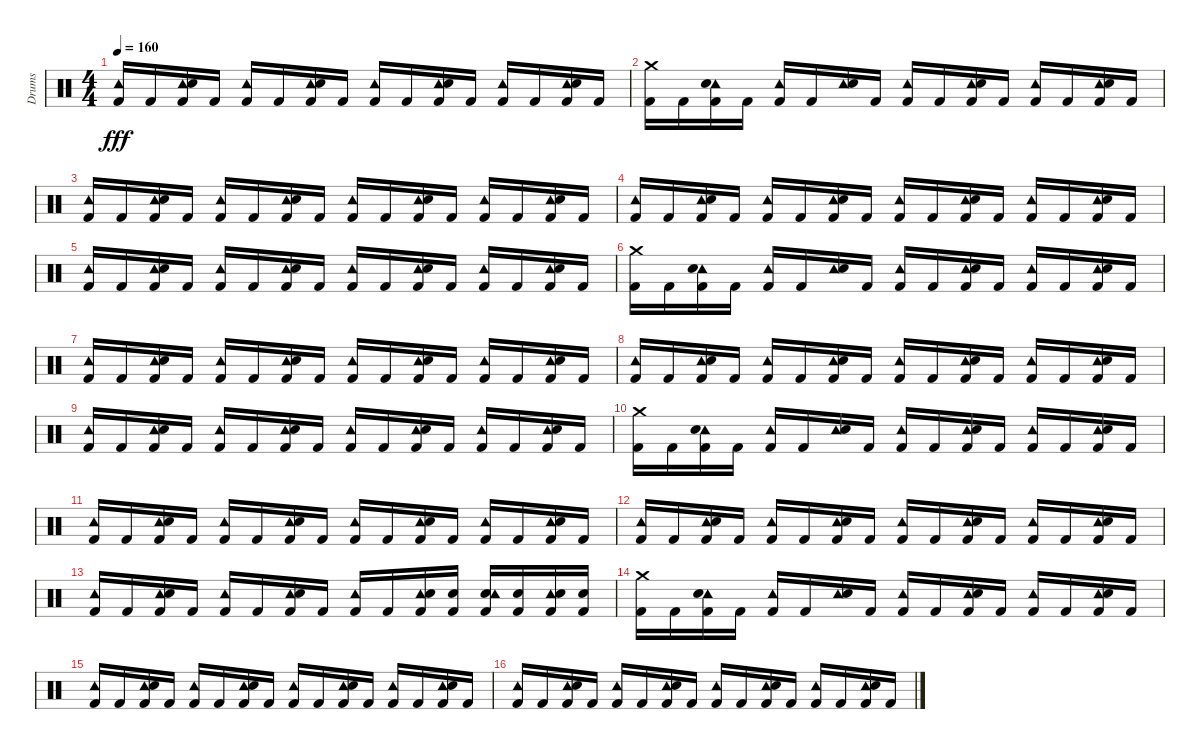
\track ("Drums" "Drums") {instrument percussion}
\staff {score}
\articulation defaults
\ts (4 4)
\tempo 160
\clef neutral
\ks c
("Kick (hit) 2" "Tambourine (hit)").16{dy fff} "Kick (hit) 2".16 ("Kick (hit) 2" "Tambourine (hit)" "Electric Snare (hit)").16 "Kick (hit) 2".16 ("Kick (hit) 2" "Tambourine (hit)").16 "Kick (hit) 2".16 ("Kick (hit) 2" "Tambourine (hit)" "Electric Snare (hit)").16 "Kick (hit) 2".16 ("Kick (hit) 2" "Tambourine (hit)").16 "Kick (hit) 2".16 ("Kick (hit) 2" "Tambourine (hit)" "Electric Snare (hit)").16 "Kick (hit) 2".16 ("Kick (hit) 2" "Tambourine (hit)").16 "Kick (hit) 2".16 ("Kick (hit) 2" "Tambourine (hit)" "Electric Snare (hit)").16 "Kick (hit) 2".16 |
("Crash medium (hit)" "Kick (hit) 2").16 "Kick (hit) 2".16 ("Kick (hit) 2" "Tambourine (hit)" "Electric Snare (hit)").16 "Kick (hit) 2".16 ("Kick (hit) 2" "Tambourine (hit)").16 "Kick (hit) 2".16 ("Tambourine (hit)" "Electric Snare (hit)").16 "Kick (hit) 2".16 ("Kick (hit) 2" "Tambourine (hit)").16 "Kick (hit) 2".16 ("Kick (hit) 2" "Tambourine (hit)" "Electric Snare (hit)").16 "Kick (hit) 2".16 ("Kick (hit) 2" "Tambourine (hit)").16 "Kick (hit) 2".16 ("Kick (hit) 2" "Tambourine (hit)" "Electric Snare (hit)").16 "Kick (hit) 2".16 |
("Kick (hit) 2" "Tambourine (hit)").16 "Kick (hit) 2".16 ("Kick (hit) 2" "Tambourine (hit)" "Electric Snare (hit)").16 "Kick (hit) 2".16 ("Kick (hit) 2" "Tambourine (hit)").16 "Kick (hit) 2".16 ("Kick (hit) 2" "Tambourine (hit)" "Electric Snare (hit)").16 "Kick (hit) 2".16 ("Kick (hit) 2" "Tambourine (hit)").16 "Kick (hit) 2".16 ("Kick (hit) 2" "Tambourine (hit)" "Electric Snare (hit)").16 "Kick (hit) 2".16 ("Kick (hit) 2" "Tambourine (hit)").16 "Kick (hit) 2".16 ("Kick (hit) 2" "Tambourine (hit)" "Electric Snare (hit)").16 "Kick (hit) 2".16 |
("Kick (hit) 2" "Tambourine (hit)").16 "Kick (hit) 2".16 ("Kick (hit) 2" "Tambourine (hit)" "Electric Snare (hit)").16 "Kick (hit) 2".16 ("Kick (hit) 2" "Tambourine (hit)").16 "Kick (hit) 2".16 ("Kick (hit) 2" "Tambourine (hit)" "Electric Snare (hit)").16 "Kick (hit) 2".16 ("Kick (hit) 2" "Tambourine (hit)").16 "Kick (hit) 2".16 ("Kick (hit) 2" "Tambourine (hit)" "Electric Snare (hit)").16 "Kick (hit) 2".16 ("Kick (hit) 2" "Tambourine (hit)").16 "Kick (hit) 2".16 ("Kick (hit) 2" "Tambourine (hit)" "Electric Snare (hit)").16 "Kick (hit) 2".16 |
("Kick (hit) 2" "Tambourine (hit)").16 "Kick (hit) 2".16 ("Kick (hit) 2" "Tambourine (hit)" "Electric Snare (hit)").16 "Kick (hit) 2".16 ("Kick (hit) 2" "Tambourine (hit)").16 "Kick (hit) 2".16 ("Kick (hit) 2" "Tambourine (hit)" "Electric Snare (hit)").16 "Kick (hit) 2".16 ("Kick (hit) 2" "Tambourine (hit)").16 "Kick (hit) 2".16 ("Kick (hit) 2" "Tambourine (hit)" "Electric Snare (hit)").16 "Kick (hit) 2".16 ("Kick (hit) 2" "Tambourine (hit)").16 "Kick (hit) 2".16 ("Kick (hit) 2" "Tambourine (hit)" "Electric Snare (hit)").16 "Kick (hit) 2".16 |
("Crash medium (hit)" "Kick (hit) 2").16 "Kick (hit) 2".16 ("Kick (hit) 2" "Tambourine (hit)" "Electric Snare (hit)").16 "Kick (hit) 2".16 ("Kick (hit) 2" "Tambourine (hit)").16 "Kick (hit) 2".16 ("Tambourine (hit)" "Electric Snare (hit)").16 "Kick (hit) 2".16 ("Kick (hit) 2" "Tambourine (hit)").16 "Kick (hit) 2".16 ("Kick (hit) 2" "Tambourine (hit)" "Electric Snare (hit)").16 "Kick (hit) 2".16 ("Kick (hit) 2" "Tambourine (hit)").16 "Kick (hit) 2".16 ("Kick (hit) 2" "Tambourine (hit)" "Electric Snare (hit)").16 "Kick (hit) 2".16 |
("Kick (hit) 2" "Tambourine (hit)").16 "Kick (hit) 2".16 ("Kick (hit) 2" "Tambourine (hit)" "Electric Snare (hit)").16 "Kick (hit) 2".16 ("Kick (hit) 2" "Tambourine (hit)").16 "Kick (hit) 2".16 ("Kick (hit) 2" "Tambourine (hit)" "Electric Snare (hit)").16 "Kick (hit) 2".16 ("Kick (hit) 2" "Tambourine (hit)").16 "Kick (hit) 2".16 ("Kick (hit) 2" "Tambourine (hit)" "Electric Snare (hit)").16 "Kick (hit) 2".16 ("Kick (hit) 2" "Tambourine (hit)").16 "Kick (hit) 2".16 ("Kick (hit) 2" "Tambourine (hit)" "Electric Snare (hit)").16 "Kick (hit) 2".16 |
("Kick (hit) 2" "Tambourine (hit)").16 "Kick (hit) 2".16 ("Kick (hit) 2" "Tambourine (hit)" "Electric Snare (hit)").16 "Kick (hit) 2".16 ("Kick (hit) 2" "Tambourine (hit)").16 "Kick (hit) 2".16 ("Kick (hit) 2" "Tambourine (hit)" "Electric Snare (hit)").16 "Kick (hit) 2".16 ("Kick (hit) 2" "Tambourine (hit)").16 "Kick (hit) 2".16 ("Kick (hit) 2" "Tambourine (hit)" "Electric Snare (hit)").16 "Kick (hit) 2".16 ("Kick (hit) 2" "Tambourine (hit)").16 "Kick (hit) 2".16 ("Kick (hit) 2" "Tambourine (hit)" "Electric Snare (hit)").16 "Kick (hit) 2".16 |
("Kick (hit) 2" "Tambourine (hit)").16 "Kick (hit) 2".16 ("Kick (hit) 2" "Tambourine (hit)" "Electric Snare (hit)").16 "Kick (hit) 2".16 ("Kick (hit) 2" "Tambourine (hit)").16 "Kick (hit) 2".16 ("Kick (hit) 2" "Tambourine (hit)" "Electric Snare (hit)").16 "Kick (hit) 2".16 ("Kick (hit) 2" "Tambourine (hit)").16 "Kick (hit) 2".16 ("Kick (hit) 2" "Tambourine (hit)" "Electric Snare (hit)").16 "Kick (hit) 2".16 ("Kick (hit) 2" "Tambourine (hit)").16 "Kick (hit) 2".16 ("Kick (hit) 2" "Tambourine (hit)" "Electric Snare (hit)").16 "Kick (hit) 2".16 |
("Crash medium (hit)" "Kick (hit) 2").16 "Kick (hit) 2".16 ("Kick (hit) 2" "Tambourine (hit)" "Electric Snare (hit)").16 "Kick (hit) 2".16 ("Kick (hit) 2" "Tambourine (hit)").16 "Kick (hit) 2".16 ("Tambourine (hit)" "Electric Snare (hit)").16 "Kick (hit) 2".16 ("Kick (hit) 2" "Tambourine (hit)").16 "Kick (hit) 2".16 ("Kick (hit) 2" "Tambourine (hit)" "Electric Snare (hit)").16 "Kick (hit) 2".16 ("Kick (hit) 2" "Tambourine (hit)").16 "Kick (hit) 2".16 ("Kick (hit) 2" "Tambourine (hit)" "Electric Snare (hit)").16 "Kick (hit) 2".16 |
("Kick (hit) 2" "Tambourine (hit)").16 "Kick (hit) 2".16 ("Kick (hit) 2" "Tambourine (hit)" "Electric Snare (hit)").16 "Kick (hit) 2".16 ("Kick (hit) 2" "Tambourine (hit)").16 "Kick (hit) 2".16 ("Kick (hit) 2" "Tambourine (hit)" "Electric Snare (hit)").16 "Kick (hit) 2".16 ("Kick (hit) 2" "Tambourine (hit)").16 "Kick (hit) 2".16 ("Kick (hit) 2" "Tambourine (hit)" "Electric Snare (hit)").16 "Kick (hit) 2".16 ("Kick (hit) 2" "Tambourine (hit)").16 "Kick (hit) 2".16 ("Kick (hit) 2" "Tambourine (hit)" "Electric Snare (hit)").16 "Kick (hit) 2".16 |
("Kick (hit) 2" "Tambourine (hit)").16 "Kick (hit) 2".16 ("Kick (hit) 2" "Tambourine (hit)" "Electric Snare (hit)").16 "Kick (hit) 2".16 ("Kick (hit) 2" "Tambourine (hit)").16 "Kick (hit) 2".16 ("Kick (hit) 2" "Tambourine (hit)" "Electric Snare (hit)").16 "Kick (hit) 2".16 ("Kick (hit) 2" "Tambourine (hit)").16 "Kick (hit) 2".16 ("Kick (hit) 2" "Tambourine (hit)" "Electric Snare (hit)").16 "Kick (hit) 2".16 ("Kick (hit) 2" "Tambourine (hit)").16 "Kick (hit) 2".16 ("Kick (hit) 2" "Tambourine (hit)" "Electric Snare (hit)").16 "Kick (hit) 2".16 |
("Kick (hit) 2" "Tambourine (hit)").16 "Kick (hit) 2".16 ("Kick (hit) 2" "Tambourine (hit)" "Electric Snare (hit)").16 "Kick (hit) 2".16 ("Kick (hit) 2" "Tambourine (hit)").16 "Kick (hit) 2".16 ("Kick (hit) 2" "Tambourine (hit)" "Electric Snare (hit)").16 "Kick (hit) 2".16 ("Kick (hit) 2" "Tambourine (hit)").16 "Kick (hit) 2".16 ("Kick (hit) 2" "Tambourine (hit)" "Electric Snare (hit)").16 ("Kick (hit) 2" "Electric Snare (hit)").16 ("Electric Snare (hit)" "Kick (hit) 2" "Tambourine (hit)").16 ("Electric Snare (hit)" "Kick (hit) 2").16 ("Kick (hit) 2" "Tambourine (hit)" "Electric Snare (hit)").16 ("Electric Snare (hit)" "Kick (hit) 2").16 |
("Crash medium (hit)" "Kick (hit) 2").16 "Kick (hit) 2".16 ("Kick (hit) 2" "Tambourine (hit)" "Electric Snare (hit)").16 "Kick (hit) 2".16 ("Kick (hit) 2" "Tambourine (hit)").16 "Kick (hit) 2".16 ("Tambourine (hit)" "Electric Snare (hit)").16 "Kick (hit) 2".16 ("Kick (hit) 2" "Tambourine (hit)").16 "Kick (hit) 2".16 ("Kick (hit) 2" "Tambourine (hit)" "Electric Snare (hit)").16 "Kick (hit) 2".16 ("Kick (hit) 2" "Tambourine (hit)").16 "Kick (hit) 2".16 ("Kick (hit) 2" "Tambourine (hit)" "Electric Snare (hit)").16 "Kick (hit) 2".16 |
("Kick (hit) 2" "Tambourine (hit)").16 "Kick (hit) 2".16 ("Kick (hit) 2" "Tambourine (hit)" "Electric Snare (hit)").16 "Kick (hit) 2".16 ("Kick (hit) 2" "Tambourine (hit)").16 "Kick (hit) 2".16 ("Kick (hit) 2" "Tambourine (hit)" "Electric Snare (hit)").16 "Kick (hit) 2".16 ("Kick (hit) 2" "Tambourine (hit)").16 "Kick (hit) 2".16 ("Kick (hit) 2" "Tambourine (hit)" "Electric Snare (hit)").16 "Kick (hit) 2".16 ("Kick (hit) 2" "Tambourine (hit)").16 "Kick (hit) 2".16 ("Kick (hit) 2" "Tambourine (hit)" "Electric Snare (hit)").16 "Kick (hit) 2".16 |
("Kick (hit) 2" "Tambourine (hit)").16 "Kick (hit) 2".16 ("Kick (hit) 2" "Tambourine (hit)" "Electric Snare (hit)").16 "Kick (hit) 2".16 ("Kick (hit) 2" "Tambourine (hit)").16 "Kick (hit) 2".16 ("Kick (hit) 2" "Tambourine (hit)" "Electric Snare (hit)").16 "Kick (hit) 2".16 ("Kick (hit) 2" "Tambourine (hit)").16 "Kick (hit) 2".16 ("Kick (hit) 2" "Tambourine (hit)" "Electric Snare (hit)").16 "Kick (hit) 2".16 ("Kick (hit) 2" "Tambourine (hit)").16 "Kick (hit) 2".16 ("Kick (hit) 2" "Tambourine (hit)" "Electric Snare (hit)").16 "Kick (hit) 2".16
